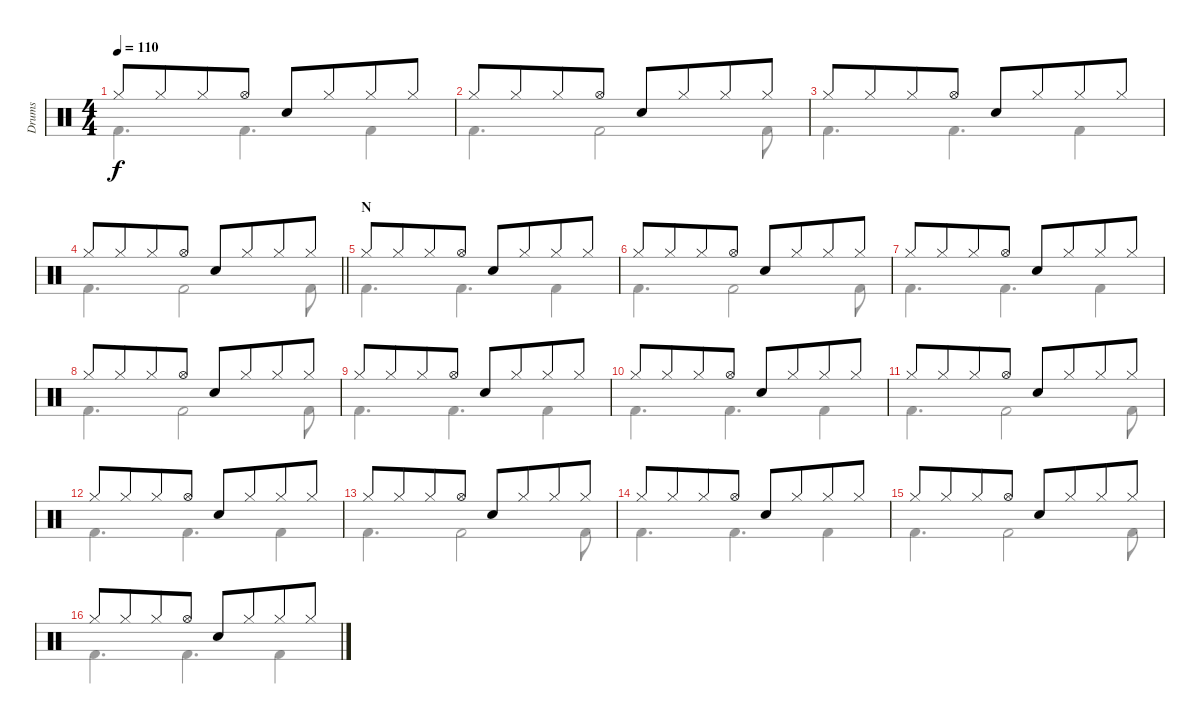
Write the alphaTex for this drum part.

\track ("Drums" "Drums") {instrument percussion}
\staff {score}
\articulation defaults
\voice
\ts (4 4)
\tempo 110
\clef neutral
\ks c "Hi-Hat (closed)".8{dy f} "Hi-Hat (closed)".8{beam merge} "Hi-Hat (closed)".8 "Hi-Hat (open)".8 "Snare (hit) 2".8 "Hi-Hat (closed)".8{beam merge} "Hi-Hat (closed)".8 "Hi-Hat (closed)".8
|
"Hi-Hat (closed)".8 "Hi-Hat (closed)".8{beam merge} "Hi-Hat (closed)".8 "Hi-Hat (open)".8 "Snare (hit) 2".8 "Hi-Hat (closed)".8{beam merge} "Hi-Hat (closed)".8 "Hi-Hat (closed)".8 |
"Hi-Hat (closed)".8 "Hi-Hat (closed)".8{beam merge} "Hi-Hat (closed)".8 "Hi-Hat (open)".8 "Snare (hit) 2".8 "Hi-Hat (closed)".8{beam merge} "Hi-Hat (closed)".8 "Hi-Hat (closed)".8 |
\barLineRight lightlight "Hi-Hat (closed)".8 "Hi-Hat (closed)".8{beam merge} "Hi-Hat (closed)".8 "Hi-Hat (open)".8 "Snare (hit) 2".8 "Hi-Hat (closed)".8{beam merge} "Hi-Hat (closed)".8 "Hi-Hat (closed)".8
|
\section ("" "N")
"Hi-Hat (closed)".8 "Hi-Hat (closed)".8{beam merge} "Hi-Hat (closed)".8 "Hi-Hat (open)".8 "Snare (hit) 2".8 "Hi-Hat (closed)".8{beam merge} "Hi-Hat (closed)".8 "Hi-Hat (closed)".8 |
"Hi-Hat (closed)".8 "Hi-Hat (closed)".8{beam merge} "Hi-Hat (closed)".8 "Hi-Hat (open)".8 "Snare (hit) 2".8 "Hi-Hat (closed)".8{beam merge} "Hi-Hat (closed)".8 "Hi-Hat (closed)".8 |
"Hi-Hat (closed)".8 "Hi-Hat (closed)".8{beam merge} "Hi-Hat (closed)".8 "Hi-Hat (open)".8 "Snare (hit) 2".8 "Hi-Hat (closed)".8{beam merge} "Hi-Hat (closed)".8 "Hi-Hat (closed)".8 |
"Hi-Hat (closed)".8 "Hi-Hat (closed)".8{beam merge} "Hi-Hat (closed)".8 "Hi-Hat (open)".8 "Snare (hit) 2".8 "Hi-Hat (closed)".8{beam merge} "Hi-Hat (closed)".8 "Hi-Hat (closed)".8 |
"Hi-Hat (closed)".8 "Hi-Hat (closed)".8{beam merge} "Hi-Hat (closed)".8 "Hi-Hat (open)".8 "Snare (hit) 2".8 "Hi-Hat (closed)".8{beam merge} "Hi-Hat (closed)".8 "Hi-Hat (closed)".8 |
"Hi-Hat (closed)".8 "Hi-Hat (closed)".8{beam merge} "Hi-Hat (closed)".8 "Hi-Hat (open)".8 "Snare (hit) 2".8 "Hi-Hat (closed)".8{beam merge} "Hi-Hat (closed)".8 "Hi-Hat (closed)".8 |
"Hi-Hat (closed)".8 "Hi-Hat (closed)".8{beam merge} "Hi-Hat (closed)".8 "Hi-Hat (open)".8 "Snare (hit) 2".8 "Hi-Hat (closed)".8{beam merge} "Hi-Hat (closed)".8 "Hi-Hat (closed)".8 |
"Hi-Hat (closed)".8 "Hi-Hat (closed)".8{beam merge} "Hi-Hat (closed)".8 "Hi-Hat (open)".8 "Snare (hit) 2".8 "Hi-Hat (closed)".8{beam merge} "Hi-Hat (closed)".8 "Hi-Hat (closed)".8 |
"Hi-Hat (closed)".8 "Hi-Hat (closed)".8{beam merge} "Hi-Hat (closed)".8 "Hi-Hat (open)".8 "Snare (hit) 2".8 "Hi-Hat (closed)".8{beam merge} "Hi-Hat (closed)".8 "Hi-Hat (closed)".8 |
"Hi-Hat (closed)".8 "Hi-Hat (closed)".8{beam merge} "Hi-Hat (closed)".8 "Hi-Hat (open)".8 "Snare (hit) 2".8 "Hi-Hat (closed)".8{beam merge} "Hi-Hat (closed)".8 "Hi-Hat (closed)".8 |
"Hi-Hat (closed)".8 "Hi-Hat (closed)".8{beam merge} "Hi-Hat (closed)".8 "Hi-Hat (open)".8 "Snare (hit) 2".8 "Hi-Hat (closed)".8{beam merge} "Hi-Hat (closed)".8 "Hi-Hat (closed)".8 |
"Hi-Hat (closed)".8 "Hi-Hat (closed)".8{beam merge} "Hi-Hat (closed)".8 "Hi-Hat (open)".8 "Snare (hit) 2".8 "Hi-Hat (closed)".8{beam merge} "Hi-Hat (closed)".8 "Hi-Hat (closed)".8
\voice
\clef neutral
\ottava regular
\simile none
\ks c "Kick (hit) 2".4{d dy f} "Kick (hit) 2".4{d} "Kick (hit) 2".4
|
"Kick (hit) 2".4{d} "Kick (hit) 2".2 "Kick (hit) 2".8 |
"Kick (hit) 2".4{d} "Kick (hit) 2".4{d} "Kick (hit) 2".4 |
\barLineRight lightlight "Kick (hit) 2".4{d} "Kick (hit) 2".2 "Kick (hit) 2".8
|
"Kick (hit) 2".4{d} "Kick (hit) 2".4{d} "Kick (hit) 2".4 |
"Kick (hit) 2".4{d} "Kick (hit) 2".2 "Kick (hit) 2".8 |
"Kick (hit) 2".4{d} "Kick (hit) 2".4{d} "Kick (hit) 2".4 |
"Kick (hit) 2".4{d} "Kick (hit) 2".2 "Kick (hit) 2".8 |
"Kick (hit) 2".4{d} "Kick (hit) 2".4{d} "Kick (hit) 2".4 |
"Kick (hit) 2".4{d} "Kick (hit) 2".4{d} "Kick (hit) 2".4 |
"Kick (hit) 2".4{d} "Kick (hit) 2".2 "Kick (hit) 2".8 |
"Kick (hit) 2".4{d} "Kick (hit) 2".4{d} "Kick (hit) 2".4 |
"Kick (hit) 2".4{d} "Kick (hit) 2".2 "Kick (hit) 2".8 |
"Kick (hit) 2".4{d} "Kick (hit) 2".4{d} "Kick (hit) 2".4 |
"Kick (hit) 2".4{d} "Kick (hit) 2".2 "Kick (hit) 2".8 |
"Kick (hit) 2".4{d} "Kick (hit) 2".4{d} "Kick (hit) 2".4
